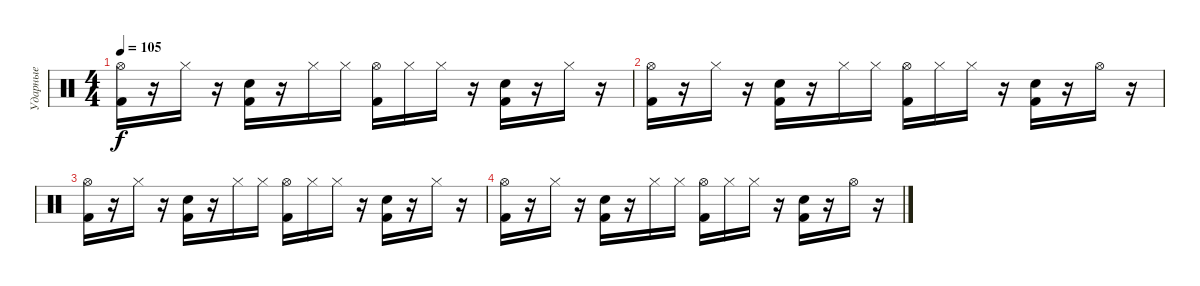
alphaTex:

\track ("Ударные" "Ударные") {instrument percussion}
\staff {score}
\articulation defaults
\ts (4 4)
\tempo 105
\clef neutral
\ks c
("Hi-Hat (open)" "Kick (hit) 2").16{dy f} r.16 "Hi-Hat (closed)".16 r.16 ("Snare (hit) 2" "Kick (hit) 2").16 r.16 "Hi-Hat (closed)".16 "Hi-Hat (closed)".16 ("Hi-Hat (open)" "Kick (hit) 2").16 "Hi-Hat (closed)".16 "Hi-Hat (closed)".16 r.16 ("Snare (hit) 2" "Kick (hit) 2").16 r.16 "Hi-Hat (closed)".16 r.16 |
("Hi-Hat (open)" "Kick (hit) 2").16 r.16 "Hi-Hat (closed)".16 r.16 ("Snare (hit) 2" "Kick (hit) 2").16 r.16 "Hi-Hat (closed)".16 "Hi-Hat (closed)".16 ("Hi-Hat (open)" "Kick (hit) 2").16 "Hi-Hat (closed)".16 "Hi-Hat (closed)".16 r.16 ("Snare (hit) 2" "Kick (hit) 2").16 r.16 "Hi-Hat (open)".16 r.16 |
("Hi-Hat (open)" "Kick (hit) 2").16 r.16 "Hi-Hat (closed)".16 r.16 ("Snare (hit) 2" "Kick (hit) 2").16 r.16 "Hi-Hat (closed)".16 "Hi-Hat (closed)".16 ("Hi-Hat (open)" "Kick (hit) 2").16 "Hi-Hat (closed)".16 "Hi-Hat (closed)".16 r.16 ("Snare (hit) 2" "Kick (hit) 2").16 r.16 "Hi-Hat (closed)".16 r.16 |
("Hi-Hat (open)" "Kick (hit) 2").16 r.16 "Hi-Hat (closed)".16 r.16 ("Snare (hit) 2" "Kick (hit) 2").16 r.16 "Hi-Hat (closed)".16 "Hi-Hat (closed)".16 ("Hi-Hat (open)" "Kick (hit) 2").16 "Hi-Hat (closed)".16 "Hi-Hat (closed)".16 r.16 ("Snare (hit) 2" "Kick (hit) 2").16 r.16 "Hi-Hat (open)".16 r.16
